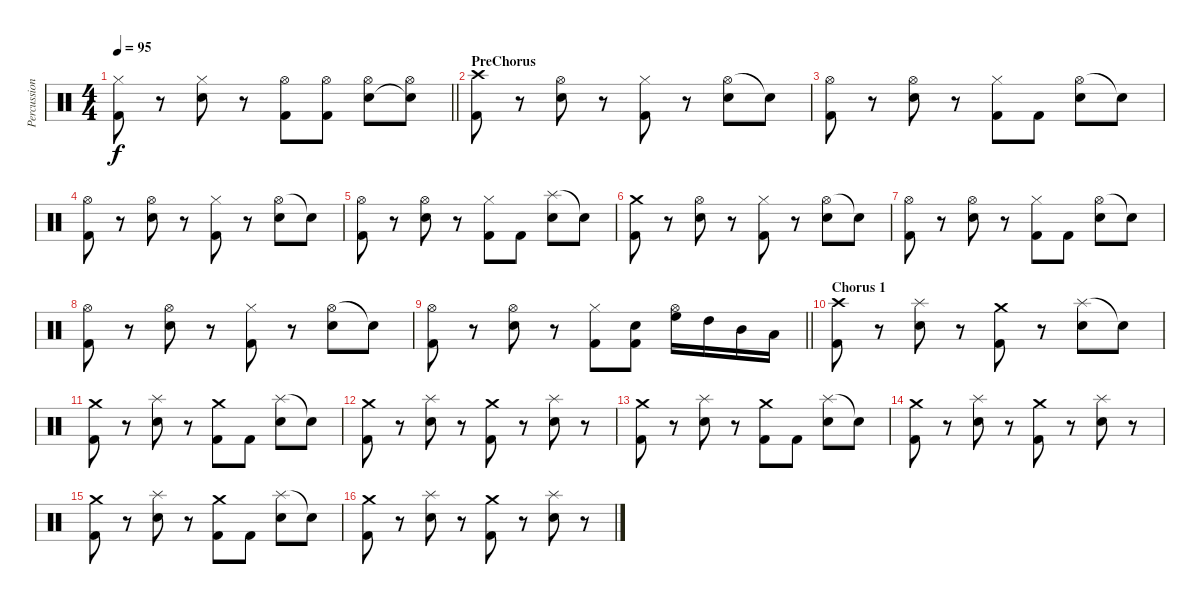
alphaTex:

\track ("Percussion" "Percussion") {instrument percussion}
\staff {score}
\articulation defaults
\ts (4 4)
\tempo 95
\clef neutral
\barLineRight lightlight
\ks c
("Hi-Hat (closed)" "Kick (hit) 2").8{dy f} r.8 ("Hi-Hat (closed)" "Snare (hit) 2").8 r.8 ("Hi-Hat (open)" "Kick (hit) 2").8 ("Hi-Hat (open)" "Kick (hit) 2").8 ("Hi-Hat (open)" "Snare (hit) 2").8 ("Hi-Hat (open)" "Snare (hit) 2"{t}).8 |
\section ("" "PreChorus")
("Crash high (hit)" "Kick (hit) 2").8 r.8 ("Hi-Hat (open)" "Snare (hit) 2").8 r.8 ("Hi-Hat (closed)" "Kick (hit) 2").8 r.8 ("Hi-Hat (open)" "Snare (hit) 2").8 "Snare (hit) 2"{t}.8 |
("Hi-Hat (open)" "Kick (hit) 2").8 r.8 ("Hi-Hat (open)" "Snare (hit) 2").8 r.8 ("Hi-Hat (closed)" "Kick (hit) 2").8 "Kick (hit) 2".8 ("Hi-Hat (open)" "Snare (hit) 2").8 "Snare (hit) 2"{t}.8 |
("Hi-Hat (open)" "Kick (hit) 2").8 r.8 ("Hi-Hat (open)" "Snare (hit) 2").8 r.8 ("Hi-Hat (closed)" "Kick (hit) 2").8 r.8 ("Hi-Hat (open)" "Snare (hit) 2").8 "Snare (hit) 2"{t}.8 |
("Hi-Hat (open)" "Kick (hit) 2").8 r.8 ("Hi-Hat (open)" "Snare (hit) 2").8 r.8 ("Hi-Hat (closed)" "Kick (hit) 2").8 "Kick (hit) 2".8 ("Splash (hit)" "Snare (hit) 2").8 "Snare (hit) 2"{t}.8 |
("Crash medium (hit)" "Kick (hit) 2").8 r.8 ("Hi-Hat (open)" "Snare (hit) 2").8 r.8 ("Hi-Hat (closed)" "Kick (hit) 2").8 r.8 ("Hi-Hat (open)" "Snare (hit) 2").8 "Snare (hit) 2"{t}.8 |
("Hi-Hat (open)" "Kick (hit) 2").8 r.8 ("Hi-Hat (open)" "Snare (hit) 2").8 r.8 ("Hi-Hat (closed)" "Kick (hit) 2").8 "Kick (hit) 2".8 ("Hi-Hat (open)" "Snare (hit) 2").8 "Snare (hit) 2"{t}.8 |
("Hi-Hat (open)" "Kick (hit) 2").8 r.8 ("Hi-Hat (open)" "Snare (hit) 2").8 r.8 ("Hi-Hat (closed)" "Kick (hit) 2").8 r.8 ("Hi-Hat (open)" "Snare (hit) 2").8 "Snare (hit) 2"{t}.8 |
\barLineRight lightlight
("Hi-Hat (open)" "Kick (hit) 2").8 r.8 ("Hi-Hat (open)" "Snare (hit) 2").8 r.8 ("Hi-Hat (closed)" "Kick (hit) 2").8 ("Snare (hit) 2" "Kick (hit) 2").8 ("Hi-Hat (open)" "High Floor Tom (hit)").16 "High Tom (hit)".16 "Mid Tom (hit)".16 "Low Tom (hit)".16 |
\section ("" "Chorus 1")
("Crash high (hit)" "Kick (hit) 2").8 r.8 ("Splash (hit)" "Snare (hit) 2").8 r.8 ("Crash medium (hit)" "Kick (hit) 2").8 r.8 ("Splash (hit)" "Snare (hit) 2").8 "Snare (hit) 2"{t}.8 |
("Crash medium (hit)" "Kick (hit) 2").8 r.8 ("Splash (hit)" "Snare (hit) 2").8 r.8 ("Crash medium (hit)" "Kick (hit) 2").8 "Kick (hit) 2".8 ("Splash (hit)" "Snare (hit) 2").8 "Snare (hit) 2"{t}.8 |
("Crash medium (hit)" "Kick (hit) 2").8 r.8 ("Splash (hit)" "Snare (hit) 2").8 r.8 ("Crash medium (hit)" "Kick (hit) 2").8 r.8 ("Splash (hit)" "Snare (hit) 2").8 r.8 |
("Crash medium (hit)" "Kick (hit) 2").8 r.8 ("Splash (hit)" "Snare (hit) 2").8 r.8 ("Crash medium (hit)" "Kick (hit) 2").8 "Kick (hit) 2".8 ("Splash (hit)" "Snare (hit) 2").8 "Snare (hit) 2"{t}.8 |
("Crash medium (hit)" "Kick (hit) 2").8 r.8 ("Splash (hit)" "Snare (hit) 2").8 r.8 ("Crash medium (hit)" "Kick (hit) 2").8 r.8 ("Splash (hit)" "Snare (hit) 2").8 r.8 |
("Crash medium (hit)" "Kick (hit) 2").8 r.8 ("Splash (hit)" "Snare (hit) 2").8 r.8 ("Crash medium (hit)" "Kick (hit) 2").8 "Kick (hit) 2".8 ("Splash (hit)" "Snare (hit) 2").8 "Snare (hit) 2"{t}.8 |
("Crash medium (hit)" "Kick (hit) 2").8 r.8 ("Splash (hit)" "Snare (hit) 2").8 r.8 ("Crash medium (hit)" "Kick (hit) 2").8 r.8 ("Splash (hit)" "Snare (hit) 2").8 r.8
